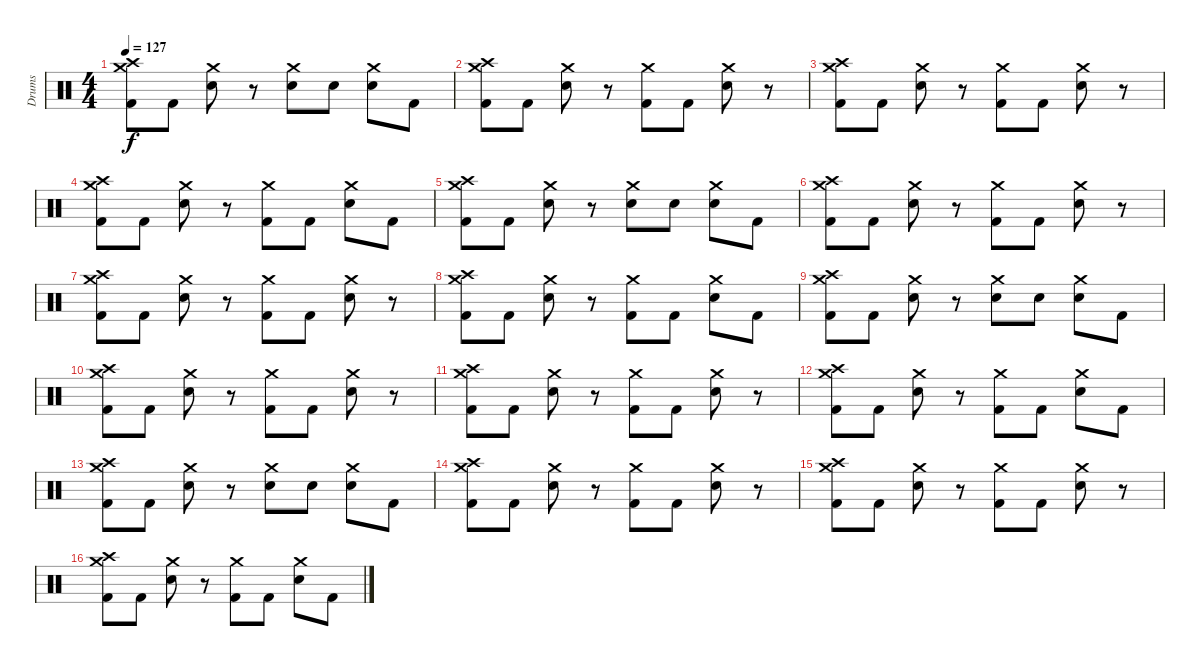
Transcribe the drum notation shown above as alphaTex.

\track ("Drums" "Drums") {instrument percussion}
\staff {score}
\articulation defaults
\ts (4 4)
\tempo 127
\clef neutral
\ks c
("Crash high (hit)" "Crash medium (hit)" "Kick (hit) 2").8{dy f} "Kick (hit) 2".8 ("Crash medium (hit)" "Snare (hit) 2").8 r.8 ("Crash medium (hit)" "Snare (hit) 2").8 "Snare (hit) 2".8 ("Crash medium (hit)" "Snare (hit) 2").8 "Kick (hit) 2".8 |
("Crash high (hit)" "Crash medium (hit)" "Kick (hit) 2").8 "Kick (hit) 2".8 ("Crash medium (hit)" "Snare (hit) 2").8 r.8 ("Crash medium (hit)" "Kick (hit) 2").8 "Kick (hit) 2".8 ("Crash medium (hit)" "Snare (hit) 2").8 r.8 |
("Crash high (hit)" "Crash medium (hit)" "Kick (hit) 2").8 "Kick (hit) 2".8 ("Crash medium (hit)" "Snare (hit) 2").8 r.8 ("Crash medium (hit)" "Kick (hit) 2").8 "Kick (hit) 2".8 ("Crash medium (hit)" "Snare (hit) 2").8 r.8 |
("Crash high (hit)" "Crash medium (hit)" "Kick (hit) 2").8 "Kick (hit) 2".8 ("Crash medium (hit)" "Snare (hit) 2").8 r.8 ("Crash medium (hit)" "Kick (hit) 2").8 "Kick (hit) 2".8 ("Crash medium (hit)" "Snare (hit) 2").8 "Kick (hit) 2".8 |
("Crash high (hit)" "Crash medium (hit)" "Kick (hit) 2").8 "Kick (hit) 2".8 ("Crash medium (hit)" "Snare (hit) 2").8 r.8 ("Crash medium (hit)" "Snare (hit) 2").8 "Snare (hit) 2".8 ("Crash medium (hit)" "Snare (hit) 2").8 "Kick (hit) 2".8 |
("Crash high (hit)" "Crash medium (hit)" "Kick (hit) 2").8 "Kick (hit) 2".8 ("Crash medium (hit)" "Snare (hit) 2").8 r.8 ("Crash medium (hit)" "Kick (hit) 2").8 "Kick (hit) 2".8 ("Crash medium (hit)" "Snare (hit) 2").8 r.8 |
("Crash high (hit)" "Crash medium (hit)" "Kick (hit) 2").8 "Kick (hit) 2".8 ("Crash medium (hit)" "Snare (hit) 2").8 r.8 ("Crash medium (hit)" "Kick (hit) 2").8 "Kick (hit) 2".8 ("Crash medium (hit)" "Snare (hit) 2").8 r.8 |
("Crash high (hit)" "Crash medium (hit)" "Kick (hit) 2").8 "Kick (hit) 2".8 ("Crash medium (hit)" "Snare (hit) 2").8 r.8 ("Crash medium (hit)" "Kick (hit) 2").8 "Kick (hit) 2".8 ("Crash medium (hit)" "Snare (hit) 2").8 "Kick (hit) 2".8 |
("Crash high (hit)" "Crash medium (hit)" "Kick (hit) 2").8 "Kick (hit) 2".8 ("Crash medium (hit)" "Snare (hit) 2").8 r.8 ("Crash medium (hit)" "Snare (hit) 2").8 "Snare (hit) 2".8 ("Crash medium (hit)" "Snare (hit) 2").8 "Kick (hit) 2".8 |
("Crash high (hit)" "Crash medium (hit)" "Kick (hit) 2").8 "Kick (hit) 2".8 ("Crash medium (hit)" "Snare (hit) 2").8 r.8 ("Crash medium (hit)" "Kick (hit) 2").8 "Kick (hit) 2".8 ("Crash medium (hit)" "Snare (hit) 2").8 r.8 |
("Crash high (hit)" "Crash medium (hit)" "Kick (hit) 2").8 "Kick (hit) 2".8 ("Crash medium (hit)" "Snare (hit) 2").8 r.8 ("Crash medium (hit)" "Kick (hit) 2").8 "Kick (hit) 2".8 ("Crash medium (hit)" "Snare (hit) 2").8 r.8 |
("Crash high (hit)" "Crash medium (hit)" "Kick (hit) 2").8 "Kick (hit) 2".8 ("Crash medium (hit)" "Snare (hit) 2").8 r.8 ("Crash medium (hit)" "Kick (hit) 2").8 "Kick (hit) 2".8 ("Crash medium (hit)" "Snare (hit) 2").8 "Kick (hit) 2".8 |
("Crash high (hit)" "Crash medium (hit)" "Kick (hit) 2").8 "Kick (hit) 2".8 ("Crash medium (hit)" "Snare (hit) 2").8 r.8 ("Crash medium (hit)" "Snare (hit) 2").8 "Snare (hit) 2".8 ("Crash medium (hit)" "Snare (hit) 2").8 "Kick (hit) 2".8 |
("Crash high (hit)" "Crash medium (hit)" "Kick (hit) 2").8 "Kick (hit) 2".8 ("Crash medium (hit)" "Snare (hit) 2").8 r.8 ("Crash medium (hit)" "Kick (hit) 2").8 "Kick (hit) 2".8 ("Crash medium (hit)" "Snare (hit) 2").8 r.8 |
("Crash high (hit)" "Crash medium (hit)" "Kick (hit) 2").8 "Kick (hit) 2".8 ("Crash medium (hit)" "Snare (hit) 2").8 r.8 ("Crash medium (hit)" "Kick (hit) 2").8 "Kick (hit) 2".8 ("Crash medium (hit)" "Snare (hit) 2").8 r.8 |
("Crash high (hit)" "Crash medium (hit)" "Kick (hit) 2").8 "Kick (hit) 2".8 ("Crash medium (hit)" "Snare (hit) 2").8 r.8 ("Crash medium (hit)" "Kick (hit) 2").8 "Kick (hit) 2".8 ("Crash medium (hit)" "Snare (hit) 2").8 "Kick (hit) 2".8
